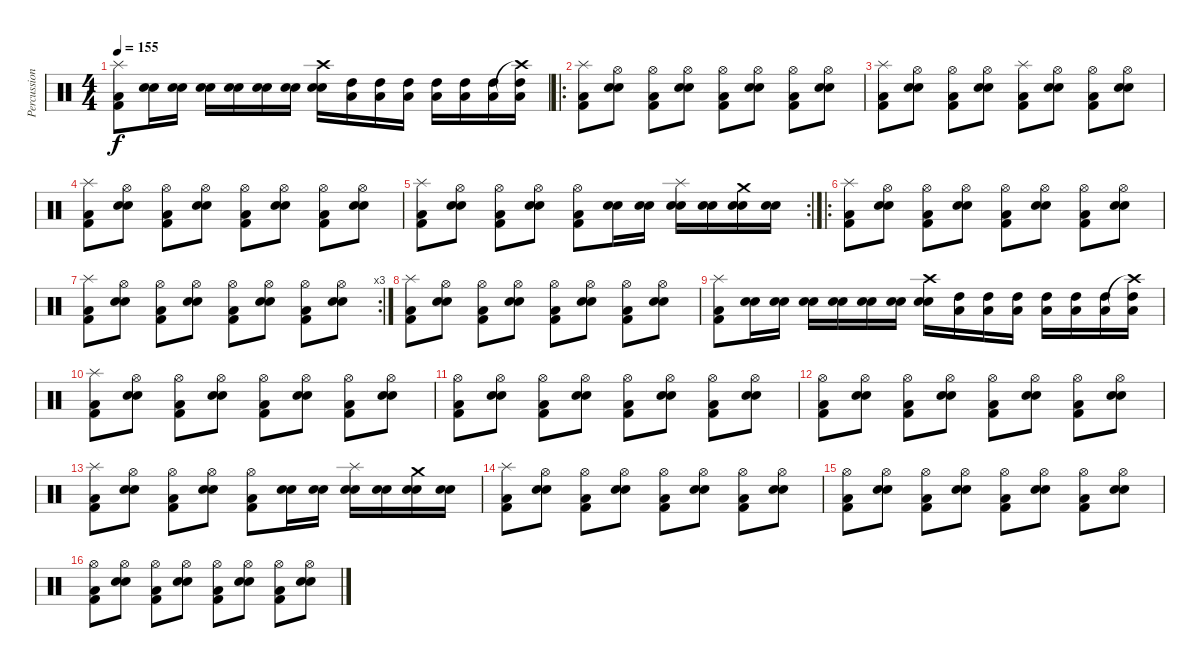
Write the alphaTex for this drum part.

\track ("Percussions" "Percussion") {instrument percussion}
\staff {score}
\articulation defaults
\ts (4 4)
\tempo 155
\clef neutral
\ks c
("Splash (hit)" "Kick (hit) 2" "Low Floor Tom (hit)").8{dy f} ("Snare (hit) 2" "Snare (hit) 2").16 ("Snare (hit) 2" "Snare (hit) 2").16 ("Snare (hit) 2" "Snare (hit) 2").16 ("Snare (hit) 2" "Snare (hit) 2").16 ("Snare (hit) 2" "Snare (hit) 2").16 ("Snare (hit) 2" "Snare (hit) 2").16 ("Crash high (hit)" "Snare (hit) 2" "Snare (hit) 2").16 ("Low Floor Tom (hit)" "High Tom (hit)").16 ("Low Floor Tom (hit)" "High Tom (hit)").16 ("Low Floor Tom (hit)" "High Tom (hit)").16 ("Low Floor Tom (hit)" "High Tom (hit)").16 ("Low Floor Tom (hit)" "High Tom (hit)").16 ("Low Floor Tom (hit)" "High Tom (hit)").16 ("Crash high (hit)"{t} "Low Floor Tom (hit)" "High Tom (hit)").16 |
\ro
("Splash (hit)" "Kick (hit) 2" "Low Floor Tom (hit)").8 ("Hi-Hat (open)" "Snare (hit) 2" "Snare (hit) 2").8 ("Hi-Hat (open)" "Kick (hit) 2" "Low Floor Tom (hit)").8 ("Hi-Hat (open)" "Snare (hit) 2" "Snare (hit) 2").8 ("Hi-Hat (open)" "Kick (hit) 2" "Low Floor Tom (hit)").8 ("Hi-Hat (open)" "Snare (hit) 2" "Snare (hit) 2").8 ("Hi-Hat (open)" "Kick (hit) 2" "Low Floor Tom (hit)").8 ("Hi-Hat (open)" "Snare (hit) 2" "Snare (hit) 2").8 |
("Splash (hit)" "Kick (hit) 2" "Low Floor Tom (hit)").8 ("Hi-Hat (open)" "Snare (hit) 2" "Snare (hit) 2").8 ("Hi-Hat (open)" "Kick (hit) 2" "Low Floor Tom (hit)").8 ("Hi-Hat (open)" "Snare (hit) 2" "Snare (hit) 2").8 ("Splash (hit)" "Kick (hit) 2" "Low Floor Tom (hit)").8 ("Hi-Hat (open)" "Snare (hit) 2" "Snare (hit) 2").8 ("Hi-Hat (open)" "Kick (hit) 2" "Low Floor Tom (hit)").8 ("Hi-Hat (open)" "Snare (hit) 2" "Snare (hit) 2").8 |
("Splash (hit)" "Kick (hit) 2" "Low Floor Tom (hit)").8 ("Hi-Hat (open)" "Snare (hit) 2" "Snare (hit) 2").8 ("Hi-Hat (open)" "Kick (hit) 2" "Low Floor Tom (hit)").8 ("Hi-Hat (open)" "Snare (hit) 2" "Snare (hit) 2").8 ("Hi-Hat (open)" "Kick (hit) 2" "Low Floor Tom (hit)").8 ("Hi-Hat (open)" "Snare (hit) 2" "Snare (hit) 2").8 ("Hi-Hat (open)" "Kick (hit) 2" "Low Floor Tom (hit)").8 ("Hi-Hat (open)" "Snare (hit) 2" "Snare (hit) 2").8 |
\rc 2
("Splash (hit)" "Kick (hit) 2" "Low Floor Tom (hit)").8 ("Hi-Hat (open)" "Snare (hit) 2" "Snare (hit) 2").8 ("Hi-Hat (open)" "Kick (hit) 2" "Low Floor Tom (hit)").8 ("Hi-Hat (open)" "Snare (hit) 2" "Snare (hit) 2").8 ("Hi-Hat (open)" "Kick (hit) 2" "Low Floor Tom (hit)").8 ("Snare (hit) 2" "Snare (hit) 2").16 ("Snare (hit) 2" "Snare (hit) 2").16 ("Splash (hit)" "Snare (hit) 2" "Snare (hit) 2").16 ("Snare (hit) 2" "Snare (hit) 2").16 ("Crash medium (hit)" "Snare (hit) 2" "Snare (hit) 2").16 ("Snare (hit) 2" "Snare (hit) 2").16 |
\ro
("Splash (hit)" "Kick (hit) 2" "Low Floor Tom (hit)").8 ("Hi-Hat (open)" "Snare (hit) 2" "Snare (hit) 2").8 ("Hi-Hat (open)" "Kick (hit) 2" "Low Floor Tom (hit)").8 ("Hi-Hat (open)" "Snare (hit) 2" "Snare (hit) 2").8 ("Hi-Hat (open)" "Kick (hit) 2" "Low Floor Tom (hit)").8 ("Hi-Hat (open)" "Snare (hit) 2" "Snare (hit) 2").8 ("Hi-Hat (open)" "Kick (hit) 2" "Low Floor Tom (hit)").8 ("Hi-Hat (open)" "Snare (hit) 2" "Snare (hit) 2").8 |
\rc 3
("Splash (hit)" "Kick (hit) 2" "Low Floor Tom (hit)").8 ("Hi-Hat (open)" "Snare (hit) 2" "Snare (hit) 2").8 ("Hi-Hat (open)" "Kick (hit) 2" "Low Floor Tom (hit)").8 ("Hi-Hat (open)" "Snare (hit) 2" "Snare (hit) 2").8 ("Hi-Hat (open)" "Kick (hit) 2" "Low Floor Tom (hit)").8 ("Hi-Hat (open)" "Snare (hit) 2" "Snare (hit) 2").8 ("Hi-Hat (open)" "Kick (hit) 2" "Low Floor Tom (hit)").8 ("Hi-Hat (open)" "Snare (hit) 2" "Snare (hit) 2").8 |
("Splash (hit)" "Kick (hit) 2" "Low Floor Tom (hit)").8 ("Hi-Hat (open)" "Snare (hit) 2" "Snare (hit) 2").8 ("Hi-Hat (open)" "Kick (hit) 2" "Low Floor Tom (hit)").8 ("Hi-Hat (open)" "Snare (hit) 2" "Snare (hit) 2").8 ("Hi-Hat (open)" "Kick (hit) 2" "Low Floor Tom (hit)").8 ("Hi-Hat (open)" "Snare (hit) 2" "Snare (hit) 2").8 ("Hi-Hat (open)" "Kick (hit) 2" "Low Floor Tom (hit)").8 ("Hi-Hat (open)" "Snare (hit) 2" "Snare (hit) 2").8 |
("Splash (hit)" "Kick (hit) 2" "Low Floor Tom (hit)").8 ("Snare (hit) 2" "Snare (hit) 2").16 ("Snare (hit) 2" "Snare (hit) 2").16 ("Snare (hit) 2" "Snare (hit) 2").16 ("Snare (hit) 2" "Snare (hit) 2").16 ("Snare (hit) 2" "Snare (hit) 2").16 ("Snare (hit) 2" "Snare (hit) 2").16 ("Crash high (hit)" "Snare (hit) 2" "Snare (hit) 2").16 ("Low Floor Tom (hit)" "High Tom (hit)").16 ("Low Floor Tom (hit)" "High Tom (hit)").16 ("Low Floor Tom (hit)" "High Tom (hit)").16 ("Low Floor Tom (hit)" "High Tom (hit)").16 ("Low Floor Tom (hit)" "High Tom (hit)").16 ("Low Floor Tom (hit)" "High Tom (hit)").16 ("Crash high (hit)"{t} "Low Floor Tom (hit)" "High Tom (hit)").16 |
("Splash (hit)" "Kick (hit) 2" "Low Floor Tom (hit)").8 ("Hi-Hat (open)" "Snare (hit) 2" "Snare (hit) 2").8 ("Hi-Hat (open)" "Kick (hit) 2" "Low Floor Tom (hit)").8 ("Hi-Hat (open)" "Snare (hit) 2" "Snare (hit) 2").8 ("Hi-Hat (open)" "Kick (hit) 2" "Low Floor Tom (hit)").8 ("Hi-Hat (open)" "Snare (hit) 2" "Snare (hit) 2").8 ("Hi-Hat (open)" "Kick (hit) 2" "Low Floor Tom (hit)").8 ("Hi-Hat (open)" "Snare (hit) 2" "Snare (hit) 2").8 |
("Hi-Hat (open)" "Kick (hit) 2" "Low Floor Tom (hit)").8 ("Hi-Hat (open)" "Snare (hit) 2" "Snare (hit) 2").8 ("Hi-Hat (open)" "Kick (hit) 2" "Low Floor Tom (hit)").8 ("Hi-Hat (open)" "Snare (hit) 2" "Snare (hit) 2").8 ("Hi-Hat (open)" "Kick (hit) 2" "Low Floor Tom (hit)").8 ("Hi-Hat (open)" "Snare (hit) 2" "Snare (hit) 2").8 ("Hi-Hat (open)" "Kick (hit) 2" "Low Floor Tom (hit)").8 ("Hi-Hat (open)" "Snare (hit) 2" "Snare (hit) 2").8 |
("Hi-Hat (open)" "Kick (hit) 2" "Low Floor Tom (hit)").8 ("Hi-Hat (open)" "Snare (hit) 2" "Snare (hit) 2").8 ("Hi-Hat (open)" "Kick (hit) 2" "Low Floor Tom (hit)").8 ("Hi-Hat (open)" "Snare (hit) 2" "Snare (hit) 2").8 ("Hi-Hat (open)" "Kick (hit) 2" "Low Floor Tom (hit)").8 ("Hi-Hat (open)" "Snare (hit) 2" "Snare (hit) 2").8 ("Hi-Hat (open)" "Kick (hit) 2" "Low Floor Tom (hit)").8 ("Hi-Hat (open)" "Snare (hit) 2" "Snare (hit) 2").8 |
("Splash (hit)" "Kick (hit) 2" "Low Floor Tom (hit)").8 ("Hi-Hat (open)" "Snare (hit) 2" "Snare (hit) 2").8 ("Hi-Hat (open)" "Kick (hit) 2" "Low Floor Tom (hit)").8 ("Hi-Hat (open)" "Snare (hit) 2" "Snare (hit) 2").8 ("Hi-Hat (open)" "Kick (hit) 2" "Low Floor Tom (hit)").8 ("Snare (hit) 2" "Snare (hit) 2").16 ("Snare (hit) 2" "Snare (hit) 2").16 ("Splash (hit)" "Snare (hit) 2" "Snare (hit) 2").16 ("Snare (hit) 2" "Snare (hit) 2").16 ("Crash medium (hit)" "Snare (hit) 2" "Snare (hit) 2").16 ("Snare (hit) 2" "Snare (hit) 2").16 |
("Splash (hit)" "Kick (hit) 2" "Low Floor Tom (hit)").8 ("Hi-Hat (open)" "Snare (hit) 2" "Snare (hit) 2").8 ("Hi-Hat (open)" "Kick (hit) 2" "Low Floor Tom (hit)").8 ("Hi-Hat (open)" "Snare (hit) 2" "Snare (hit) 2").8 ("Hi-Hat (open)" "Kick (hit) 2" "Low Floor Tom (hit)").8 ("Hi-Hat (open)" "Snare (hit) 2" "Snare (hit) 2").8 ("Hi-Hat (open)" "Kick (hit) 2" "Low Floor Tom (hit)").8 ("Hi-Hat (open)" "Snare (hit) 2" "Snare (hit) 2").8 |
("Hi-Hat (open)" "Kick (hit) 2" "Low Floor Tom (hit)").8 ("Hi-Hat (open)" "Snare (hit) 2" "Snare (hit) 2").8 ("Hi-Hat (open)" "Kick (hit) 2" "Low Floor Tom (hit)").8 ("Hi-Hat (open)" "Snare (hit) 2" "Snare (hit) 2").8 ("Hi-Hat (open)" "Kick (hit) 2" "Low Floor Tom (hit)").8 ("Hi-Hat (open)" "Snare (hit) 2" "Snare (hit) 2").8 ("Hi-Hat (open)" "Kick (hit) 2" "Low Floor Tom (hit)").8 ("Hi-Hat (open)" "Snare (hit) 2" "Snare (hit) 2").8 |
("Hi-Hat (open)" "Kick (hit) 2" "Low Floor Tom (hit)").8 ("Hi-Hat (open)" "Snare (hit) 2" "Snare (hit) 2").8 ("Hi-Hat (open)" "Kick (hit) 2" "Low Floor Tom (hit)").8 ("Hi-Hat (open)" "Snare (hit) 2" "Snare (hit) 2").8 ("Hi-Hat (open)" "Kick (hit) 2" "Low Floor Tom (hit)").8 ("Hi-Hat (open)" "Snare (hit) 2" "Snare (hit) 2").8 ("Hi-Hat (open)" "Kick (hit) 2" "Low Floor Tom (hit)").8 ("Hi-Hat (open)" "Snare (hit) 2" "Snare (hit) 2").8
